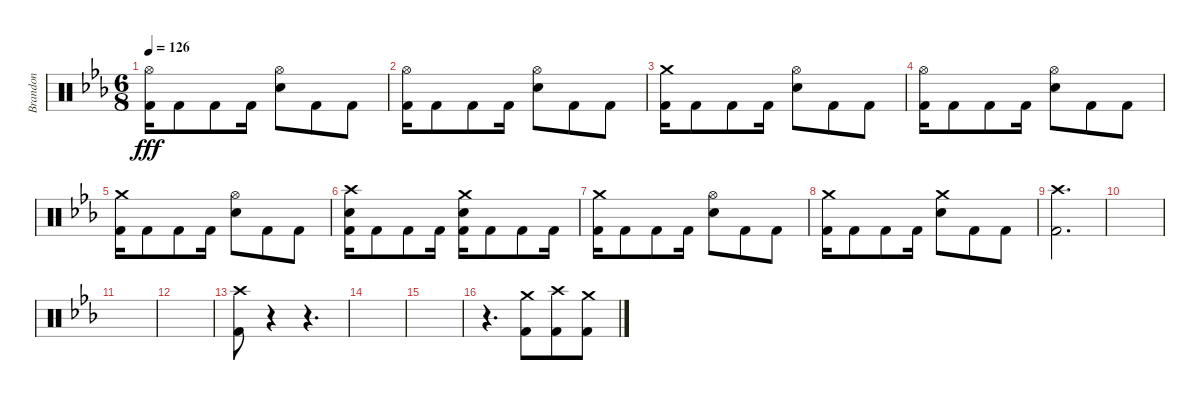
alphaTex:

\track ("Brandon" "Brandon") {instrument percussion}
\staff {score}
\articulation defaults
\ts (6 8)
\tempo 126
\clef neutral
\ks cminor
("Hi-Hat (open)" "Kick (hit) 2").16{dy fff} "Kick (hit) 2".8 "Kick (hit) 2".8 "Kick (hit) 2".16 ("Hi-Hat (open)" "Electric Snare (hit)").8 "Kick (hit) 2".8 "Kick (hit) 2".8 |
("Hi-Hat (open)" "Kick (hit) 2").16 "Kick (hit) 2".8 "Kick (hit) 2".8 "Kick (hit) 2".16 ("Hi-Hat (open)" "Electric Snare (hit)").8 "Kick (hit) 2".8 "Kick (hit) 2".8 |
("Crash medium (hit)" "Kick (hit) 2").16 "Kick (hit) 2".8 "Kick (hit) 2".8 "Kick (hit) 2".16 ("Hi-Hat (open)" "Electric Snare (hit)").8 "Kick (hit) 2".8 "Kick (hit) 2".8 |
("Hi-Hat (open)" "Kick (hit) 2").16 "Kick (hit) 2".8 "Kick (hit) 2".8 "Kick (hit) 2".16 ("Hi-Hat (open)" "Electric Snare (hit)").8 "Kick (hit) 2".8 "Kick (hit) 2".8 |
("Crash medium (hit)" "Kick (hit) 2").16 "Kick (hit) 2".8 "Kick (hit) 2".8 "Kick (hit) 2".16 ("Hi-Hat (open)" "Electric Snare (hit)").8 "Kick (hit) 2".8 "Kick (hit) 2".8 |
("Crash high (hit)" "Electric Snare (hit)" "Kick (hit) 2").16 "Kick (hit) 2".8 "Kick (hit) 2".8 "Kick (hit) 2".16 ("Crash medium (hit)" "Electric Snare (hit)" "Kick (hit) 2").16 "Kick (hit) 2".8 "Kick (hit) 2".8 "Kick (hit) 2".16 |
("Crash medium (hit)" "Kick (hit) 2").16 "Kick (hit) 2".8 "Kick (hit) 2".8 "Kick (hit) 2".16 ("Hi-Hat (open)" "Electric Snare (hit)").8 "Kick (hit) 2".8 "Kick (hit) 2".8 |
("Crash medium (hit)" "Kick (hit) 2").16 "Kick (hit) 2".8 "Kick (hit) 2".8 "Kick (hit) 2".16 ("Crash medium (hit)" "Electric Snare (hit)").8 "Kick (hit) 2".8 "Kick (hit) 2".8 |
("Crash high (hit)" "Kick (hit) 2").2{d} |
|
|
|
("Crash high (hit)" "Kick (hit) 2").8 r.4{volume 0} r.4{d} |
|
|
r.4{d volume 16} ("Crash medium (hit)" "Kick (hit) 2").8 ("Crash high (hit)" "Kick (hit) 2").8 ("Crash medium (hit)" "Kick (hit) 2").8
